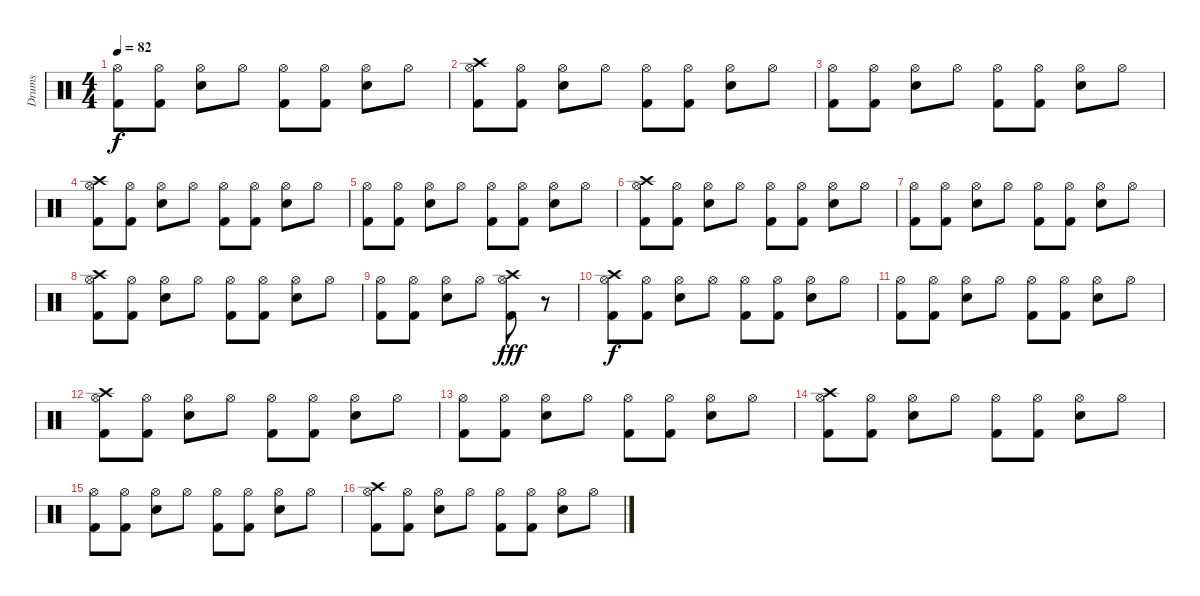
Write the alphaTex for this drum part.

\track ("Drums" "Drums") {instrument percussion}
\staff {score}
\articulation defaults
\ts (4 4)
\tempo 82
\clef neutral
\ks c
("Hi-Hat (open)" "Kick (hit) 2").8{dy f} ("Hi-Hat (open)" "Kick (hit) 2").8 ("Hi-Hat (open)" "Electric Snare (hit)").8 "Hi-Hat (open)".8 ("Hi-Hat (open)" "Kick (hit) 2").8 ("Hi-Hat (open)" "Kick (hit) 2").8 ("Hi-Hat (open)" "Electric Snare (hit)").8 "Hi-Hat (open)".8 |
("Hi-Hat (open)" "Crash high (hit)" "Kick (hit) 2").8 ("Hi-Hat (open)" "Kick (hit) 2").8 ("Hi-Hat (open)" "Electric Snare (hit)").8 "Hi-Hat (open)".8 ("Hi-Hat (open)" "Kick (hit) 2").8 ("Hi-Hat (open)" "Kick (hit) 2").8 ("Hi-Hat (open)" "Electric Snare (hit)").8 "Hi-Hat (open)".8 |
("Hi-Hat (open)" "Kick (hit) 2").8 ("Hi-Hat (open)" "Kick (hit) 2").8 ("Hi-Hat (open)" "Electric Snare (hit)").8 "Hi-Hat (open)".8 ("Hi-Hat (open)" "Kick (hit) 2").8 ("Hi-Hat (open)" "Kick (hit) 2").8 ("Hi-Hat (open)" "Electric Snare (hit)").8 "Hi-Hat (open)".8 |
("Hi-Hat (open)" "Crash high (hit)" "Kick (hit) 2").8 ("Hi-Hat (open)" "Kick (hit) 2").8 ("Hi-Hat (open)" "Electric Snare (hit)").8 "Hi-Hat (open)".8 ("Hi-Hat (open)" "Kick (hit) 2").8 ("Hi-Hat (open)" "Kick (hit) 2").8 ("Hi-Hat (open)" "Electric Snare (hit)").8 "Hi-Hat (open)".8 |
("Hi-Hat (open)" "Kick (hit) 2").8 ("Hi-Hat (open)" "Kick (hit) 2").8 ("Hi-Hat (open)" "Electric Snare (hit)").8 "Hi-Hat (open)".8 ("Hi-Hat (open)" "Kick (hit) 2").8 ("Hi-Hat (open)" "Kick (hit) 2").8 ("Hi-Hat (open)" "Electric Snare (hit)").8 "Hi-Hat (open)".8 |
("Hi-Hat (open)" "Crash high (hit)" "Kick (hit) 2").8 ("Hi-Hat (open)" "Kick (hit) 2").8 ("Hi-Hat (open)" "Electric Snare (hit)").8 "Hi-Hat (open)".8 ("Hi-Hat (open)" "Kick (hit) 2").8 ("Hi-Hat (open)" "Kick (hit) 2").8 ("Hi-Hat (open)" "Electric Snare (hit)").8 "Hi-Hat (open)".8 |
("Hi-Hat (open)" "Kick (hit) 2").8 ("Hi-Hat (open)" "Kick (hit) 2").8 ("Hi-Hat (open)" "Electric Snare (hit)").8 "Hi-Hat (open)".8 ("Hi-Hat (open)" "Kick (hit) 2").8 ("Hi-Hat (open)" "Kick (hit) 2").8 ("Hi-Hat (open)" "Electric Snare (hit)").8 "Hi-Hat (open)".8 |
("Hi-Hat (open)" "Crash high (hit)" "Kick (hit) 2").8 ("Hi-Hat (open)" "Kick (hit) 2").8 ("Hi-Hat (open)" "Electric Snare (hit)").8 "Hi-Hat (open)".8 ("Hi-Hat (open)" "Kick (hit) 2").8 ("Hi-Hat (open)" "Kick (hit) 2").8 ("Hi-Hat (open)" "Electric Snare (hit)").8 "Hi-Hat (open)".8 |
("Hi-Hat (open)" "Kick (hit) 2").8 ("Hi-Hat (open)" "Kick (hit) 2").8 ("Hi-Hat (open)" "Electric Snare (hit)").8 "Hi-Hat (open)".8 ("Hi-Hat (open)" "Crash high (hit)" "Kick (hit) 2").8{dy fff} r.8 |
("Hi-Hat (open)" "Crash high (hit)" "Kick (hit) 2").8{dy f} ("Hi-Hat (open)" "Kick (hit) 2").8 ("Hi-Hat (open)" "Electric Snare (hit)").8 "Hi-Hat (open)".8 ("Hi-Hat (open)" "Kick (hit) 2").8 ("Hi-Hat (open)" "Kick (hit) 2").8 ("Hi-Hat (open)" "Electric Snare (hit)").8 "Hi-Hat (open)".8 |
("Hi-Hat (open)" "Kick (hit) 2").8 ("Hi-Hat (open)" "Kick (hit) 2").8 ("Hi-Hat (open)" "Electric Snare (hit)").8 "Hi-Hat (open)".8 ("Hi-Hat (open)" "Kick (hit) 2").8 ("Hi-Hat (open)" "Kick (hit) 2").8 ("Hi-Hat (open)" "Electric Snare (hit)").8 "Hi-Hat (open)".8 |
("Hi-Hat (open)" "Crash high (hit)" "Kick (hit) 2").8 ("Hi-Hat (open)" "Kick (hit) 2").8 ("Hi-Hat (open)" "Electric Snare (hit)").8 "Hi-Hat (open)".8 ("Hi-Hat (open)" "Kick (hit) 2").8 ("Hi-Hat (open)" "Kick (hit) 2").8 ("Hi-Hat (open)" "Electric Snare (hit)").8 "Hi-Hat (open)".8 |
("Hi-Hat (open)" "Kick (hit) 2").8 ("Hi-Hat (open)" "Kick (hit) 2").8 ("Hi-Hat (open)" "Electric Snare (hit)").8 "Hi-Hat (open)".8 ("Hi-Hat (open)" "Kick (hit) 2").8 ("Hi-Hat (open)" "Kick (hit) 2").8 ("Hi-Hat (open)" "Electric Snare (hit)").8 "Hi-Hat (open)".8 |
("Hi-Hat (open)" "Crash high (hit)" "Kick (hit) 2").8 ("Hi-Hat (open)" "Kick (hit) 2").8 ("Hi-Hat (open)" "Electric Snare (hit)").8 "Hi-Hat (open)".8 ("Hi-Hat (open)" "Kick (hit) 2").8 ("Hi-Hat (open)" "Kick (hit) 2").8 ("Hi-Hat (open)" "Electric Snare (hit)").8 "Hi-Hat (open)".8 |
("Hi-Hat (open)" "Kick (hit) 2").8 ("Hi-Hat (open)" "Kick (hit) 2").8 ("Hi-Hat (open)" "Electric Snare (hit)").8 "Hi-Hat (open)".8 ("Hi-Hat (open)" "Kick (hit) 2").8 ("Hi-Hat (open)" "Kick (hit) 2").8 ("Hi-Hat (open)" "Electric Snare (hit)").8 "Hi-Hat (open)".8 |
("Hi-Hat (open)" "Crash high (hit)" "Kick (hit) 2").8 ("Hi-Hat (open)" "Kick (hit) 2").8 ("Hi-Hat (open)" "Electric Snare (hit)").8 "Hi-Hat (open)".8 ("Hi-Hat (open)" "Kick (hit) 2").8 ("Hi-Hat (open)" "Kick (hit) 2").8 ("Hi-Hat (open)" "Electric Snare (hit)").8 "Hi-Hat (open)".8
